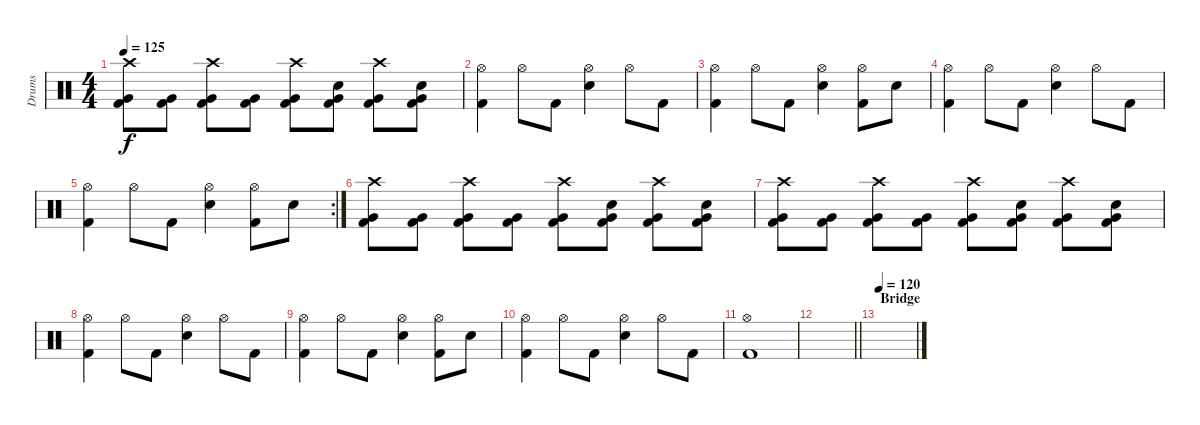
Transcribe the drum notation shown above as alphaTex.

\track ("Drums" "Drums") {instrument percussion}
\staff {score}
\articulation defaults
\ts (4 4)
\tempo 125
\clef neutral
\ks c
("Crash high (hit)" "Very Low Tom (hit)" "Kick (hit) 2").8{dy f} ("Very Low Tom (hit)" "Kick (hit) 2").8 ("Crash high (hit)" "Very Low Tom (hit)" "Kick (hit) 2").8 ("Very Low Tom (hit)" "Kick (hit) 2").8 ("Crash high (hit)" "Very Low Tom (hit)" "Kick (hit) 2").8 ("Very Low Tom (hit)" "Snare (hit) 2" "Kick (hit) 2").8 ("Crash high (hit)" "Very Low Tom (hit)" "Kick (hit) 2").8 ("Very Low Tom (hit)" "Snare (hit) 2" "Kick (hit) 2").8 |
("Hi-Hat (open)" "Kick (hit) 2").4 "Hi-Hat (open)".8 "Kick (hit) 2".8 ("Hi-Hat (open)" "Snare (hit) 2").4 "Hi-Hat (open)".8 "Kick (hit) 2".8 |
("Hi-Hat (open)" "Kick (hit) 2").4 "Hi-Hat (open)".8 "Kick (hit) 2".8 ("Hi-Hat (open)" "Snare (hit) 2").4 ("Hi-Hat (open)" "Kick (hit) 2").8 "Snare (hit) 2".8 |
("Hi-Hat (open)" "Kick (hit) 2").4 "Hi-Hat (open)".8 "Kick (hit) 2".8 ("Hi-Hat (open)" "Snare (hit) 2").4 "Hi-Hat (open)".8 "Kick (hit) 2".8 |
\rc 2
("Hi-Hat (open)" "Kick (hit) 2").4 "Hi-Hat (open)".8 "Kick (hit) 2".8 ("Hi-Hat (open)" "Snare (hit) 2").4 ("Hi-Hat (open)" "Kick (hit) 2").8 "Snare (hit) 2".8 |
("Crash high (hit)" "Very Low Tom (hit)" "Kick (hit) 2").8 ("Very Low Tom (hit)" "Kick (hit) 2").8 ("Crash high (hit)" "Very Low Tom (hit)" "Kick (hit) 2").8 ("Very Low Tom (hit)" "Kick (hit) 2").8 ("Crash high (hit)" "Very Low Tom (hit)" "Kick (hit) 2").8 ("Very Low Tom (hit)" "Snare (hit) 2" "Kick (hit) 2").8 ("Crash high (hit)" "Very Low Tom (hit)" "Kick (hit) 2").8 ("Very Low Tom (hit)" "Snare (hit) 2" "Kick (hit) 2").8 |
("Crash high (hit)" "Very Low Tom (hit)" "Kick (hit) 2").8 ("Very Low Tom (hit)" "Kick (hit) 2").8 ("Crash high (hit)" "Very Low Tom (hit)" "Kick (hit) 2").8 ("Very Low Tom (hit)" "Kick (hit) 2").8 ("Crash high (hit)" "Very Low Tom (hit)" "Kick (hit) 2").8 ("Very Low Tom (hit)" "Snare (hit) 2" "Kick (hit) 2").8 ("Crash high (hit)" "Very Low Tom (hit)" "Kick (hit) 2").8 ("Very Low Tom (hit)" "Snare (hit) 2" "Kick (hit) 2").8 |
("Hi-Hat (open)" "Kick (hit) 2").4 "Hi-Hat (open)".8 "Kick (hit) 2".8 ("Hi-Hat (open)" "Snare (hit) 2").4 "Hi-Hat (open)".8 "Kick (hit) 2".8 |
("Hi-Hat (open)" "Kick (hit) 2").4 "Hi-Hat (open)".8 "Kick (hit) 2".8 ("Hi-Hat (open)" "Snare (hit) 2").4 ("Hi-Hat (open)" "Kick (hit) 2").8 "Snare (hit) 2".8 |
("Hi-Hat (open)" "Kick (hit) 2").4 "Hi-Hat (open)".8 "Kick (hit) 2".8 ("Hi-Hat (open)" "Snare (hit) 2").4 "Hi-Hat (open)".8 "Kick (hit) 2".8 |
("Hi-Hat (open)" "Kick (hit) 2").1 |
\barLineRight lightlight
|
\section ("" "Bridge")
\tempo 120
